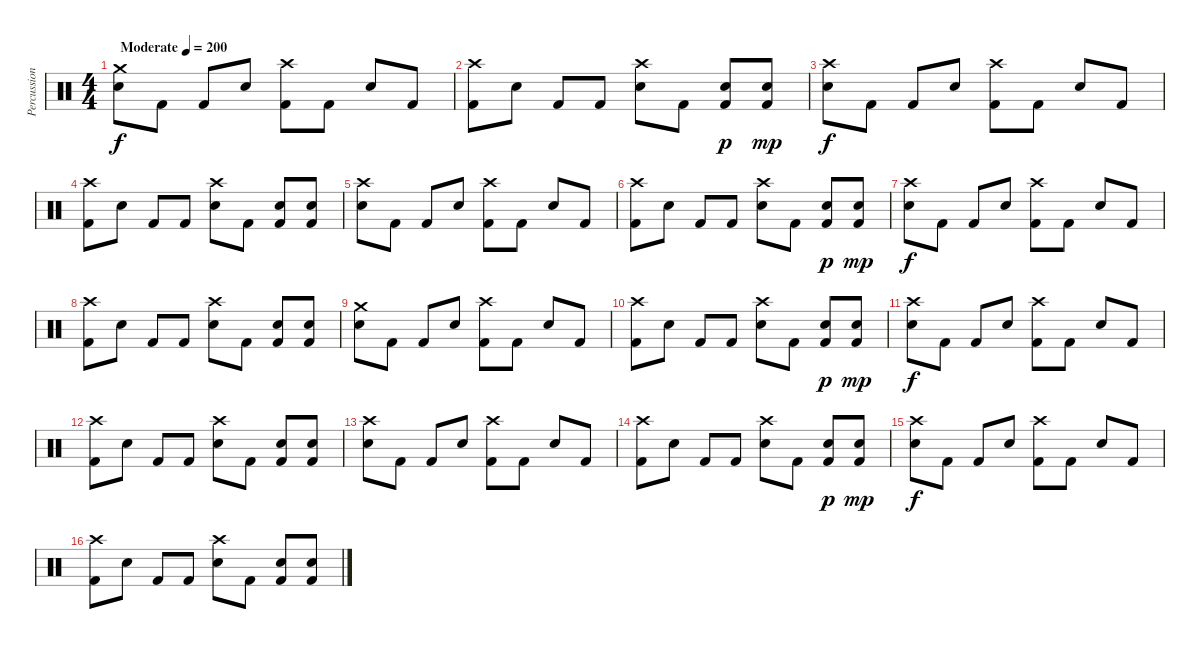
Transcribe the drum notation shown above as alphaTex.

\track ("Percussions" "Percussion") {instrument percussion}
\staff {score}
\articulation defaults
\ts (4 4)
\tempo (200 "Moderate")
\clef neutral
\ks c
("Crash medium (hit)" "Electric Snare (hit)").8{dy f} "Kick (hit) 2".8 "Kick (hit) 2".8 "Electric Snare (hit)".8 ("Crash high (hit)" "Kick (hit) 2").8 "Kick (hit) 2".8 "Electric Snare (hit)".8 "Kick (hit) 2".8 |
("Crash high (hit)" "Kick (hit) 2").8 "Electric Snare (hit)".8 "Kick (hit) 2".8 "Kick (hit) 2".8 ("Crash high (hit)" "Electric Snare (hit)").8 "Kick (hit) 2".8 ("Electric Snare (hit)" "Kick (hit) 2").8{dy p} ("Electric Snare (hit)" "Kick (hit) 2").8{dy mp} |
("Crash high (hit)" "Electric Snare (hit)").8{dy f} "Kick (hit) 2".8 "Kick (hit) 2".8 "Electric Snare (hit)".8 ("Crash high (hit)" "Kick (hit) 2").8 "Kick (hit) 2".8 "Electric Snare (hit)".8 "Kick (hit) 2".8 |
("Crash high (hit)" "Kick (hit) 2").8 "Electric Snare (hit)".8 "Kick (hit) 2".8 "Kick (hit) 2".8 ("Crash high (hit)" "Electric Snare (hit)").8 "Kick (hit) 2".8 ("Electric Snare (hit)" "Kick (hit) 2").8 ("Electric Snare (hit)" "Kick (hit) 2").8 |
("Crash high (hit)" "Electric Snare (hit)").8 "Kick (hit) 2".8 "Kick (hit) 2".8 "Electric Snare (hit)".8 ("Crash high (hit)" "Kick (hit) 2").8 "Kick (hit) 2".8 "Electric Snare (hit)".8 "Kick (hit) 2".8 |
("Crash high (hit)" "Kick (hit) 2").8 "Electric Snare (hit)".8 "Kick (hit) 2".8 "Kick (hit) 2".8 ("Crash high (hit)" "Electric Snare (hit)").8 "Kick (hit) 2".8 ("Electric Snare (hit)" "Kick (hit) 2").8{dy p} ("Electric Snare (hit)" "Kick (hit) 2").8{dy mp} |
("Crash high (hit)" "Electric Snare (hit)").8{dy f} "Kick (hit) 2".8 "Kick (hit) 2".8 "Electric Snare (hit)".8 ("Crash high (hit)" "Kick (hit) 2").8 "Kick (hit) 2".8 "Electric Snare (hit)".8 "Kick (hit) 2".8 |
("Crash high (hit)" "Kick (hit) 2").8 "Electric Snare (hit)".8 "Kick (hit) 2".8 "Kick (hit) 2".8 ("Crash high (hit)" "Electric Snare (hit)").8 "Kick (hit) 2".8 ("Electric Snare (hit)" "Kick (hit) 2").8 ("Electric Snare (hit)" "Kick (hit) 2").8 |
("Crash medium (hit)" "Electric Snare (hit)").8 "Kick (hit) 2".8 "Kick (hit) 2".8 "Electric Snare (hit)".8 ("Crash high (hit)" "Kick (hit) 2").8 "Kick (hit) 2".8 "Electric Snare (hit)".8 "Kick (hit) 2".8 |
("Crash high (hit)" "Kick (hit) 2").8 "Electric Snare (hit)".8 "Kick (hit) 2".8 "Kick (hit) 2".8 ("Crash high (hit)" "Electric Snare (hit)").8 "Kick (hit) 2".8 ("Electric Snare (hit)" "Kick (hit) 2").8{dy p} ("Electric Snare (hit)" "Kick (hit) 2").8{dy mp} |
("Crash high (hit)" "Electric Snare (hit)").8{dy f} "Kick (hit) 2".8 "Kick (hit) 2".8 "Electric Snare (hit)".8 ("Crash high (hit)" "Kick (hit) 2").8 "Kick (hit) 2".8 "Electric Snare (hit)".8 "Kick (hit) 2".8 |
("Crash high (hit)" "Kick (hit) 2").8 "Electric Snare (hit)".8 "Kick (hit) 2".8 "Kick (hit) 2".8 ("Crash high (hit)" "Electric Snare (hit)").8 "Kick (hit) 2".8 ("Electric Snare (hit)" "Kick (hit) 2").8 ("Electric Snare (hit)" "Kick (hit) 2").8 |
("Crash high (hit)" "Electric Snare (hit)").8 "Kick (hit) 2".8 "Kick (hit) 2".8 "Electric Snare (hit)".8 ("Crash high (hit)" "Kick (hit) 2").8 "Kick (hit) 2".8 "Electric Snare (hit)".8 "Kick (hit) 2".8 |
("Crash high (hit)" "Kick (hit) 2").8 "Electric Snare (hit)".8 "Kick (hit) 2".8 "Kick (hit) 2".8 ("Crash high (hit)" "Electric Snare (hit)").8 "Kick (hit) 2".8 ("Electric Snare (hit)" "Kick (hit) 2").8{dy p} ("Electric Snare (hit)" "Kick (hit) 2").8{dy mp} |
("Crash high (hit)" "Electric Snare (hit)").8{dy f} "Kick (hit) 2".8 "Kick (hit) 2".8 "Electric Snare (hit)".8 ("Crash high (hit)" "Kick (hit) 2").8 "Kick (hit) 2".8 "Electric Snare (hit)".8 "Kick (hit) 2".8 |
("Crash high (hit)" "Kick (hit) 2").8 "Electric Snare (hit)".8 "Kick (hit) 2".8 "Kick (hit) 2".8 ("Crash high (hit)" "Electric Snare (hit)").8 "Kick (hit) 2".8 ("Electric Snare (hit)" "Kick (hit) 2").8 ("Electric Snare (hit)" "Kick (hit) 2").8
